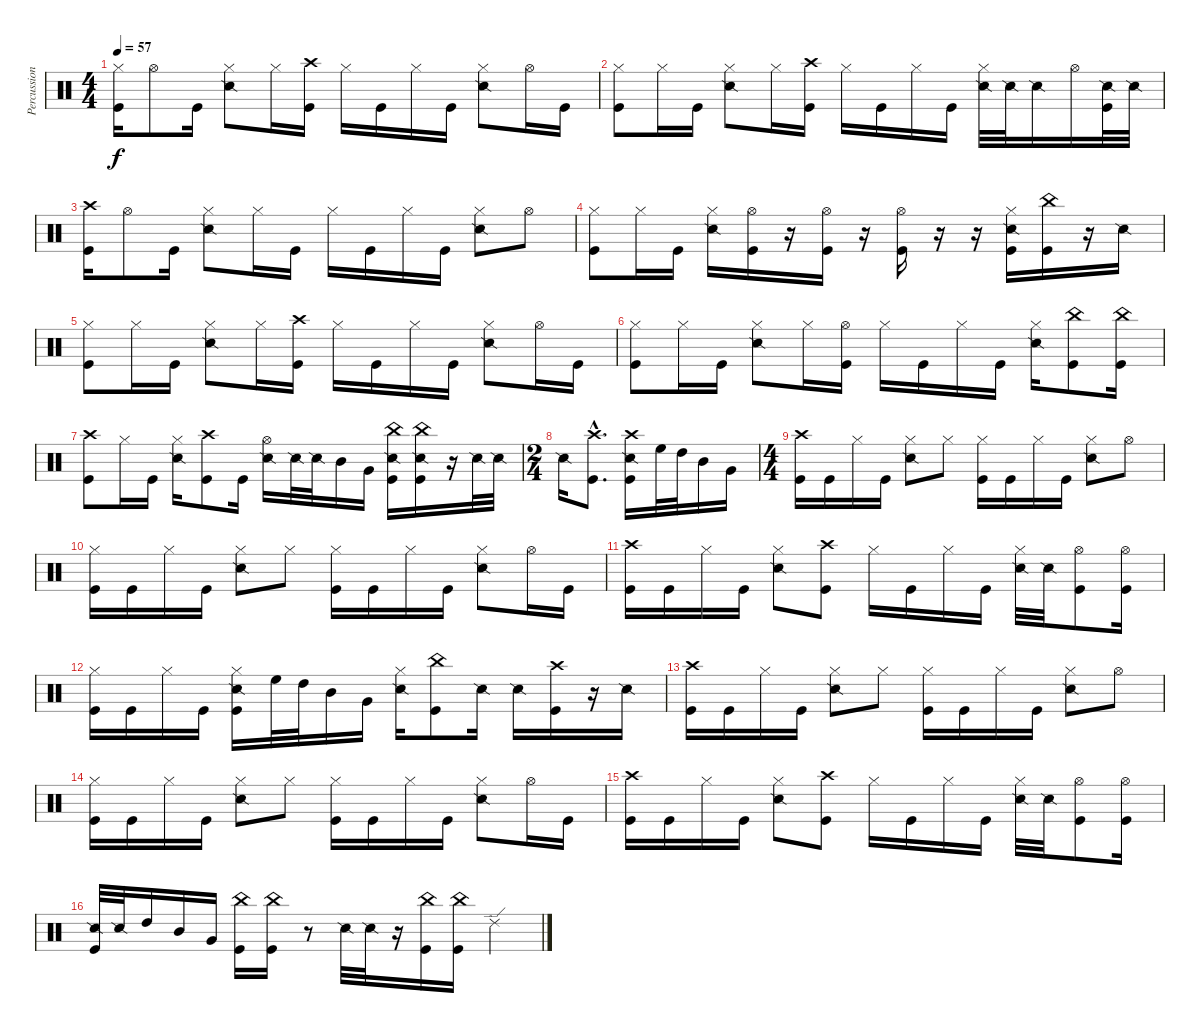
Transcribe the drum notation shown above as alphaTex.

\track ("Percussion" "Percussion") {instrument percussion}
\staff {score}
\articulation defaults
\ts (4 4)
\tempo 57
\clef neutral
\ks c
("Hi-Hat (closed)" "Kick (hit)").16{dy f} "Hi-Hat (open)".8 "Kick (hit)".16 ("Hi-Hat (closed)" "Snare (side stick) 2").8 "Hi-Hat (closed)".16 ("Crash high (hit)" "Kick (hit)").16 "Hi-Hat (closed)".16 "Kick (hit)".16 "Hi-Hat (closed)".16 "Kick (hit)".16 ("Hi-Hat (closed)" "Snare (side stick) 2").8 "Hi-Hat (open)".16 "Kick (hit)".16 |
("Hi-Hat (closed)" "Kick (hit)").8 "Hi-Hat (closed)".16 "Kick (hit)".16 ("Hi-Hat (closed)" "Snare (side stick) 2").8 "Hi-Hat (closed)".16 ("Crash high (hit)" "Kick (hit)").16 "Hi-Hat (closed)".16 "Kick (hit)".16 "Hi-Hat (closed)".16 "Kick (hit)".16 ("Hi-Hat (closed)" "Snare (side stick) 2").32 "Snare (side stick) 2".32 "Snare (side stick) 2".16 "Hi-Hat (open)".16 ("Snare (side stick) 2" "Kick (hit)").32 "Snare (side stick) 2".32 |
("Crash high (hit)" "Kick (hit)").16 "Hi-Hat (open)".8 "Kick (hit)".16 ("Hi-Hat (closed)" "Snare (side stick) 2").8 "Hi-Hat (closed)".16 "Kick (hit)".16 "Hi-Hat (closed)".16 "Kick (hit)".16 "Hi-Hat (closed)".16 "Kick (hit)".16 ("Hi-Hat (closed)" "Snare (side stick) 2").8 "Hi-Hat (open)".8 |
("Hi-Hat (closed)" "Kick (hit)").8 "Hi-Hat (closed)".16 "Kick (hit)".16 ("Hi-Hat (closed)" "Snare (side stick) 2").16 ("Hi-Hat (open)" "Kick (hit)").16 r.16 ("Hi-Hat (open)" "Kick (hit)").16 r.16 ("Hi-Hat (open)" "Kick (hit)").16 r.16 r.16 ("Hi-Hat (closed)" "Snare (side stick) 2" "Kick (hit)").16 ("China (hit)" "Kick (hit)").16 r.16 "Snare (side stick) 2".16 |
("Hi-Hat (closed)" "Kick (hit)").8 "Hi-Hat (closed)".16 "Kick (hit)".16 ("Hi-Hat (closed)" "Snare (side stick) 2").8 "Hi-Hat (closed)".16 ("Crash high (hit)" "Kick (hit)").16 "Hi-Hat (closed)".16 "Kick (hit)".16 "Hi-Hat (closed)".16 "Kick (hit)".16 ("Hi-Hat (closed)" "Snare (side stick) 2").8 "Hi-Hat (open)".16 "Kick (hit)".16 |
("Hi-Hat (closed)" "Kick (hit)").8 "Hi-Hat (closed)".16 "Kick (hit)".16 ("Hi-Hat (closed)" "Snare (side stick) 2").8 "Hi-Hat (closed)".16 ("Hi-Hat (open)" "Kick (hit)").16 "Hi-Hat (closed)".16 "Kick (hit)".16 "Hi-Hat (closed)".16 "Kick (hit)".16 ("Hi-Hat (closed)" "Snare (side stick) 2").16 ("China (hit)" "Kick (hit)").8 ("China (hit)" "Kick (hit)").16 |
("Crash high (hit)" "Kick (hit)").8 "Hi-Hat (closed)".16 "Kick (hit)".16 ("Hi-Hat (closed)" "Snare (side stick) 2").16 ("Crash high (hit)" "Kick (hit)").8 "Kick (hit)".16 ("Hi-Hat (open)" "Snare (side stick) 2").16 "Snare (side stick) 2".32 "Snare (side stick) 2".32 "Mid Tom (hit)".16 "Very Low Tom (hit)".16 ("China (hit)" "Snare (side stick) 2" "Kick (hit)").16 ("China (hit)" "Snare (side stick) 2" "Kick (hit)").16 r.16 "Snare (side stick) 2".32 "Snare (side stick) 2".32 |
\ts (2 4)
"Snare (side stick) 2".16 ("Crash high (hit)"{hac} "Kick (hit)"{hac}).8{d} ("Crash high (hit)" "Snare (side stick) 2" "Kick (hit)").16 "High Floor Tom (hit)".32 "High Tom (hit)".32 "Mid Tom (hit)".16 "Very Low Tom (hit)".16 |
\ts (4 4)
("Crash high (hit)" "Kick (hit)").16 "Kick (hit)".16 "Hi-Hat (closed)".16 "Kick (hit)".16 ("Hi-Hat (closed)" "Snare (side stick) 2").8 "Hi-Hat (closed)".8 ("Hi-Hat (closed)" "Kick (hit)").16 "Kick (hit)".16 "Hi-Hat (closed)".16 "Kick (hit)".16 ("Hi-Hat (closed)" "Snare (side stick) 2").8 "Hi-Hat (open)".8 |
("Hi-Hat (closed)" "Kick (hit)").16 "Kick (hit)".16 "Hi-Hat (closed)".16 "Kick (hit)".16 ("Hi-Hat (closed)" "Snare (side stick) 2").8 "Hi-Hat (closed)".8 ("Hi-Hat (closed)" "Kick (hit)").16 "Kick (hit)".16 "Hi-Hat (closed)".16 "Kick (hit)".16 ("Hi-Hat (closed)" "Snare (side stick) 2").8 "Hi-Hat (open)".16 "Kick (hit)".16 |
("Crash high (hit)" "Kick (hit)").16 "Kick (hit)".16 "Hi-Hat (closed)".16 "Kick (hit)".16 ("Hi-Hat (closed)" "Snare (side stick) 2").8 ("Crash high (hit)" "Kick (hit)").8 "Hi-Hat (closed)".16 "Kick (hit)".16 "Hi-Hat (closed)".16 "Kick (hit)".16 ("Hi-Hat (closed)" "Snare (side stick) 2").32 "Snare (side stick) 2".32 ("Hi-Hat (open)" "Kick (hit)").8 ("Hi-Hat (open)" "Kick (hit)").16 |
("Hi-Hat (closed)" "Kick (hit)").16 "Kick (hit)".16 "Hi-Hat (closed)".16 "Kick (hit)".16 ("Hi-Hat (closed)" "Snare (side stick) 2" "Kick (hit)").16 "High Floor Tom (hit)".32 "High Tom (hit)".32 "Mid Tom (hit)".16 "Very Low Tom (hit)".16 ("Hi-Hat (closed)" "Snare (side stick) 2").16 ("China (hit)" "Kick (hit)").8 "Snare (side stick) 2".16 "Snare (side stick) 2".16 ("Crash high (hit)" "Kick (hit)").16 r.16 "Snare (side stick) 2".16 |
("Crash high (hit)" "Kick (hit)").16 "Kick (hit)".16 "Hi-Hat (closed)".16 "Kick (hit)".16 ("Hi-Hat (closed)" "Snare (side stick) 2").8 "Hi-Hat (closed)".8 ("Hi-Hat (closed)" "Kick (hit)").16 "Kick (hit)".16 "Hi-Hat (closed)".16 "Kick (hit)".16 ("Hi-Hat (closed)" "Snare (side stick) 2").8 "Hi-Hat (open)".8 |
("Hi-Hat (closed)" "Kick (hit)").16 "Kick (hit)".16 "Hi-Hat (closed)".16 "Kick (hit)".16 ("Hi-Hat (closed)" "Snare (side stick) 2").8 "Hi-Hat (closed)".8 ("Hi-Hat (closed)" "Kick (hit)").16 "Kick (hit)".16 "Hi-Hat (closed)".16 "Kick (hit)".16 ("Hi-Hat (closed)" "Snare (side stick) 2").8 "Hi-Hat (open)".16 "Kick (hit)".16 |
("Crash high (hit)" "Kick (hit)").16 "Kick (hit)".16 "Hi-Hat (closed)".16 "Kick (hit)".16 ("Hi-Hat (closed)" "Snare (side stick) 2").8 ("Crash high (hit)" "Kick (hit)").8 "Hi-Hat (closed)".16 "Kick (hit)".16 "Hi-Hat (closed)".16 "Kick (hit)".16 ("Hi-Hat (closed)" "Snare (side stick) 2").32 "Snare (side stick) 2".32 ("Hi-Hat (open)" "Kick (hit)").8 ("Hi-Hat (open)" "Kick (hit)").16 |
("Snare (side stick) 2" "Kick (hit)").32 "Snare (side stick) 2".32 "High Tom (hit)".16 "Mid Tom (hit)".16 "Very Low Tom (hit)".16 ("China (hit)" "Kick (hit)").16 ("China (hit)" "Kick (hit)").16 r.8 "Snare (side stick) 2".32 "Snare (side stick) 2".32 r.16 ("China (hit)" "Kick (hit)").16 ("China (hit)" "Kick (hit)").16 "Ride (edge) 2".4
